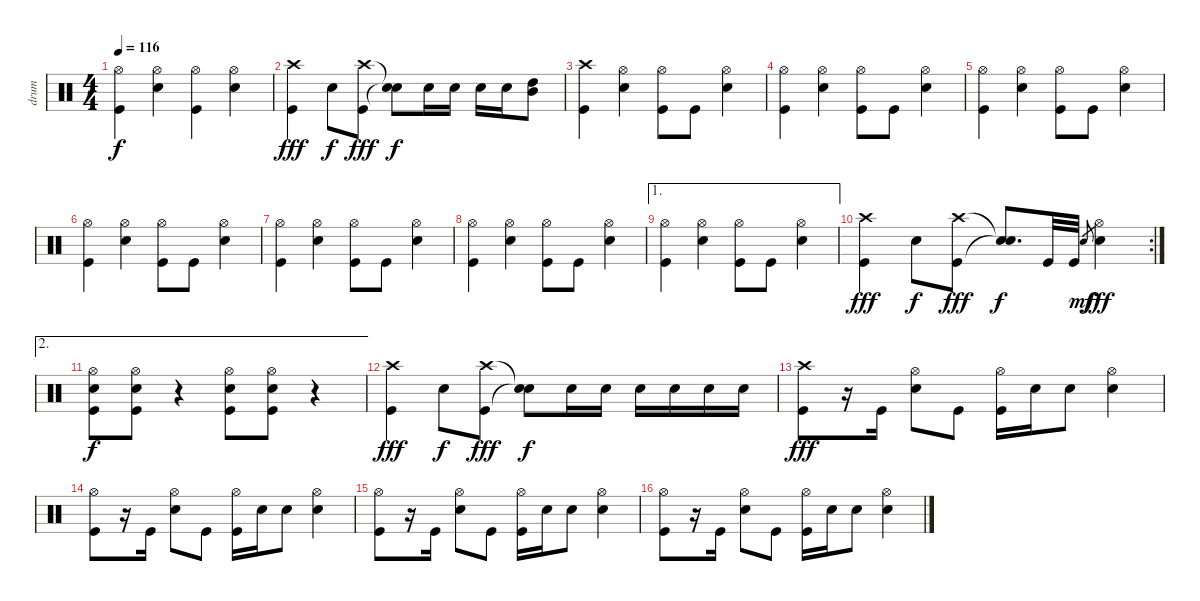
\track ("drum" "drum") {instrument percussion}
\staff {score}
\articulation defaults
\ts (4 4)
\tempo 116
\clef neutral
\ks c
("Hi-Hat (open)" "Kick (hit)").4{dy f} ("Hi-Hat (open)" "Metronome (bell)").4 ("Hi-Hat (open)" "Kick (hit)").4 ("Hi-Hat (open)" "Metronome (bell)").4 |
("Crash high (hit)" "Kick (hit)").4{dy fff} "Metronome (bell)".8{dy f} ("Crash high (hit)" "Kick (hit)").8{dy fff} ("Snare (hit)"{t} "Snare (hit)"{t}).8{dy f} "Metronome (bell)".16 "Metronome (bell)".16 "Metronome (bell)".16 "Metronome (bell)".16 ("Mid Tom (hit)" "High Tom (hit)").8 |
("Crash high (hit)" "Kick (hit)").4 ("Hi-Hat (open)" "Metronome (bell)").4 ("Hi-Hat (open)" "Kick (hit)").8 "Kick (hit)".8 ("Hi-Hat (open)" "Metronome (bell)").4 |
("Hi-Hat (open)" "Kick (hit)").4 ("Hi-Hat (open)" "Metronome (bell)").4 ("Hi-Hat (open)" "Kick (hit)").8 "Kick (hit)".8 ("Hi-Hat (open)" "Metronome (bell)").4 |
("Hi-Hat (open)" "Kick (hit)").4 ("Hi-Hat (open)" "Metronome (bell)").4 ("Hi-Hat (open)" "Kick (hit)").8 "Kick (hit)".8 ("Hi-Hat (open)" "Metronome (bell)").4 |
("Hi-Hat (open)" "Kick (hit)").4 ("Hi-Hat (open)" "Metronome (bell)").4 ("Hi-Hat (open)" "Kick (hit)").8 "Kick (hit)".8 ("Hi-Hat (open)" "Metronome (bell)").4 |
("Hi-Hat (open)" "Kick (hit)").4 ("Hi-Hat (open)" "Metronome (bell)").4 ("Hi-Hat (open)" "Kick (hit)").8 "Kick (hit)".8 ("Hi-Hat (open)" "Metronome (bell)").4 |
("Hi-Hat (open)" "Kick (hit)").4 ("Hi-Hat (open)" "Metronome (bell)").4 ("Hi-Hat (open)" "Kick (hit)").8 "Kick (hit)".8 ("Hi-Hat (open)" "Metronome (bell)").4 |
\ae 1
("Hi-Hat (open)" "Kick (hit)").4 ("Hi-Hat (open)" "Metronome (bell)").4 ("Hi-Hat (open)" "Kick (hit)").8 "Kick (hit)".8 ("Hi-Hat (open)" "Metronome (bell)").4 |
\rc 2
("Crash high (hit)" "Kick (hit)").4{dy fff} "Metronome (bell)".8{dy f} ("Crash high (hit)" "Kick (hit)").8{dy fff} ("Snare (hit)"{t} "Snare (hit)"{t}).8{d dy f} "Kick (hit)".32 "Kick (hit)".32 "Metronome (bell)".8{gr dy mf} ("Hi-Hat (open)" "Metronome (bell)").4{dy fff} |
\ae 2
("Hi-Hat (open)" "Metronome (bell)" "Kick (hit)").8{dy f} ("Hi-Hat (open)" "Metronome (bell)" "Kick (hit)").8 r.4 ("Hi-Hat (open)" "Metronome (bell)" "Kick (hit)").8 ("Hi-Hat (open)" "Metronome (bell)" "Kick (hit)").8 r.4 |
("Crash high (hit)" "Kick (hit)").4{dy fff} "Metronome (bell)".8{dy f} ("Crash high (hit)" "Kick (hit)").8{dy fff} ("Snare (hit)"{t} "Snare (hit)"{t}).8{dy f} "Metronome (bell)".16 "Metronome (bell)".16 "Metronome (bell)".16 "Metronome (bell)".16 "Metronome (bell)".16 "Metronome (bell)".16 |
("Crash high (hit)" "Kick (hit)").8{dy fff} r.16 "Kick (hit)".16 ("Hi-Hat (open)" "Metronome (bell)").8 "Kick (hit)".8 ("Hi-Hat (open)" "Kick (hit)").16 "Metronome (bell)".16 "Metronome (bell)".8 ("Hi-Hat (open)" "Metronome (bell)").4 |
("Hi-Hat (open)" "Kick (hit)").8 r.16 "Kick (hit)".16 ("Hi-Hat (open)" "Metronome (bell)").8 "Kick (hit)".8 ("Hi-Hat (open)" "Kick (hit)").16 "Metronome (bell)".16 "Metronome (bell)".8 ("Hi-Hat (open)" "Metronome (bell)").4 |
("Hi-Hat (open)" "Kick (hit)").8 r.16 "Kick (hit)".16 ("Hi-Hat (open)" "Metronome (bell)").8 "Kick (hit)".8 ("Hi-Hat (open)" "Kick (hit)").16 "Metronome (bell)".16 "Metronome (bell)".8 ("Hi-Hat (open)" "Metronome (bell)").4 |
("Hi-Hat (open)" "Kick (hit)").8 r.16 "Kick (hit)".16 ("Hi-Hat (open)" "Metronome (bell)").8 "Kick (hit)".8 ("Hi-Hat (open)" "Kick (hit)").16 "Metronome (bell)".16 "Metronome (bell)".8 ("Hi-Hat (open)" "Metronome (bell)").4
